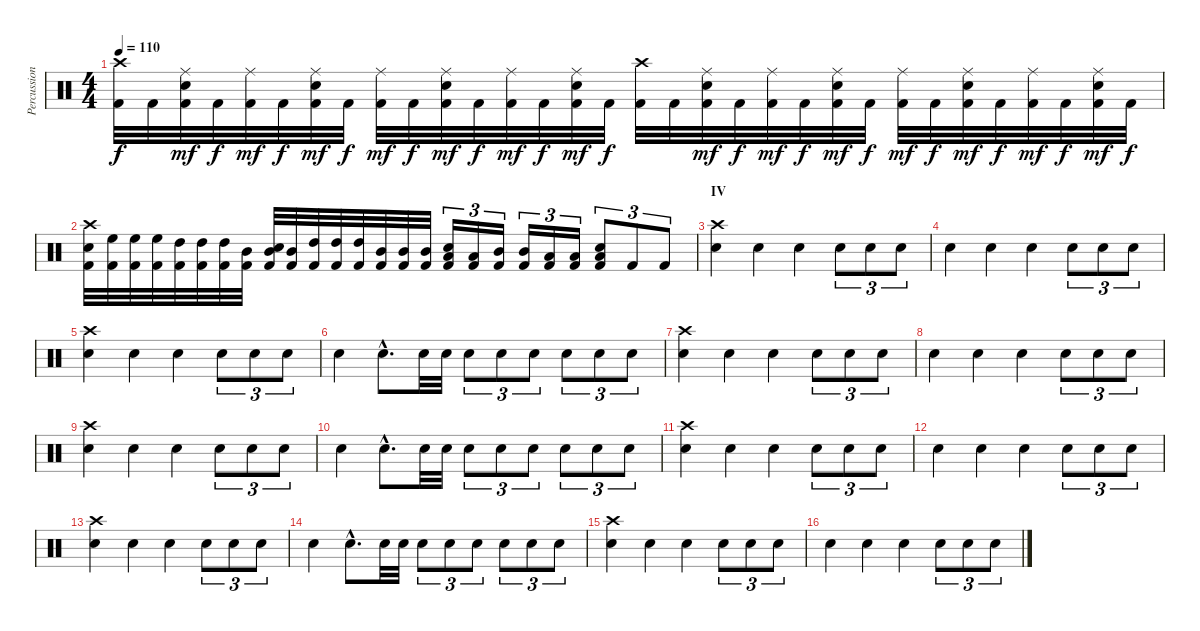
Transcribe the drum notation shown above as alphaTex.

\track ("Percussion" "Percussion") {instrument percussion}
\staff {score}
\articulation defaults
\ts (4 4)
\tempo 110
\clef neutral
\ks c
("Crash high (hit)" "Kick (hit) 2").32{dy f} "Kick (hit) 2".32 ("Ride (middle)" "Snare (hit) 2" "Kick (hit) 2").32{dy mf} "Kick (hit) 2".32{dy f} ("Ride (middle)" "Kick (hit) 2").32{dy mf} "Kick (hit) 2".32{dy f} ("Ride (middle)" "Snare (hit) 2" "Kick (hit) 2").32{dy mf} "Kick (hit) 2".32{dy f} ("Ride (middle)" "Kick (hit) 2").32{dy mf} "Kick (hit) 2".32{dy f} ("Ride (middle)" "Snare (hit) 2" "Kick (hit) 2").32{dy mf} "Kick (hit) 2".32{dy f} ("Ride (middle)" "Kick (hit) 2").32{dy mf} "Kick (hit) 2".32{dy f} ("Ride (middle)" "Snare (hit) 2" "Kick (hit) 2").32{dy mf} "Kick (hit) 2".32{dy f} ("Crash high (hit)" "Kick (hit) 2").32 "Kick (hit) 2".32 ("Ride (middle)" "Snare (hit) 2" "Kick (hit) 2").32{dy mf} "Kick (hit) 2".32{dy f} ("Ride (middle)" "Kick (hit) 2").32{dy mf} "Kick (hit) 2".32{dy f} ("Ride (middle)" "Snare (hit) 2" "Kick (hit) 2").32{dy mf} "Kick (hit) 2".32{dy f} ("Ride (middle)" "Kick (hit) 2").32{dy mf} "Kick (hit) 2".32{dy f} ("Ride (middle)" "Snare (hit) 2" "Kick (hit) 2").32{dy mf} "Kick (hit) 2".32{dy f} ("Ride (middle)" "Kick (hit) 2").32{dy mf} "Kick (hit) 2".32{dy f} ("Ride (middle)" "Snare (hit) 2" "Kick (hit) 2").32{dy mf} "Kick (hit) 2".32{dy f} |
("Crash high (hit)" "Snare (hit) 2" "Kick (hit) 2").32 ("High Floor Tom (hit)" "Kick (hit) 2").32 ("High Floor Tom (hit)" "Kick (hit) 2").32 ("High Floor Tom (hit)" "Kick (hit) 2").32 ("High Tom (hit)" "Kick (hit) 2").32 ("High Tom (hit)" "Kick (hit) 2").32 ("High Tom (hit)" "Kick (hit) 2").32 ("Mid Tom (hit)" "Kick (hit) 2").32 ("Mid Tom (hit)" "Snare (hit) 2" "Kick (hit) 2").32 ("Mid Tom (hit)" "Kick (hit) 2").32 ("High Tom (hit)" "Kick (hit) 2").32 ("High Tom (hit)" "Kick (hit) 2").32 ("High Tom (hit)" "Kick (hit) 2").32 ("Mid Tom (hit)" "Kick (hit) 2").32 ("Mid Tom (hit)" "Kick (hit) 2").32 ("Mid Tom (hit)" "Kick (hit) 2").32 ("Low Tom (hit)" "Snare (hit) 2" "Kick (hit) 2").16{tu (3 2)} ("Low Tom (hit)" "Kick (hit) 2").16{tu (3 2)} ("Mid Tom (hit)" "Kick (hit) 2").16{tu (3 2)} ("Mid Tom (hit)" "Kick (hit) 2").16{tu (3 2)} ("Low Tom (hit)" "Kick (hit) 2").16{tu (3 2)} ("Low Tom (hit)" "Kick (hit) 2").16{tu (3 2)} ("Low Tom (hit)" "Snare (hit) 2" "Kick (hit) 2").8{tu (3 2)} "Kick (hit) 2".8{tu (3 2)} "Kick (hit) 2".8{tu (3 2)} |
\section ("" "IV")
("Crash high (hit)" "Snare (hit) 2").4 "Snare (hit) 2".4 "Snare (hit) 2".4 "Snare (hit) 2".8{tu (3 2)} "Snare (hit) 2".8{tu (3 2)} "Snare (hit) 2".8{tu (3 2)} |
"Snare (hit) 2".4 "Snare (hit) 2".4 "Snare (hit) 2".4 "Snare (hit) 2".8{tu (3 2)} "Snare (hit) 2".8{tu (3 2)} "Snare (hit) 2".8{tu (3 2)} |
("Crash high (hit)" "Snare (hit) 2").4 "Snare (hit) 2".4 "Snare (hit) 2".4 "Snare (hit) 2".8{tu (3 2)} "Snare (hit) 2".8{tu (3 2)} "Snare (hit) 2".8{tu (3 2)} |
"Snare (hit) 2".4 "Snare (hit) 2"{hac}.8{d} "Snare (hit) 2".32 "Snare (hit) 2".32 "Snare (hit) 2".8{tu (3 2)} "Snare (hit) 2".8{tu (3 2)} "Snare (hit) 2".8{tu (3 2)} "Snare (hit) 2".8{tu (3 2)} "Snare (hit) 2".8{tu (3 2)} "Snare (hit) 2".8{tu (3 2)} |
("Crash high (hit)" "Snare (hit) 2").4 "Snare (hit) 2".4 "Snare (hit) 2".4 "Snare (hit) 2".8{tu (3 2)} "Snare (hit) 2".8{tu (3 2)} "Snare (hit) 2".8{tu (3 2)} |
"Snare (hit) 2".4 "Snare (hit) 2".4 "Snare (hit) 2".4 "Snare (hit) 2".8{tu (3 2)} "Snare (hit) 2".8{tu (3 2)} "Snare (hit) 2".8{tu (3 2)} |
("Crash high (hit)" "Snare (hit) 2").4 "Snare (hit) 2".4 "Snare (hit) 2".4 "Snare (hit) 2".8{tu (3 2)} "Snare (hit) 2".8{tu (3 2)} "Snare (hit) 2".8{tu (3 2)} |
"Snare (hit) 2".4 "Snare (hit) 2"{hac}.8{d} "Snare (hit) 2".32 "Snare (hit) 2".32 "Snare (hit) 2".8{tu (3 2)} "Snare (hit) 2".8{tu (3 2)} "Snare (hit) 2".8{tu (3 2)} "Snare (hit) 2".8{tu (3 2)} "Snare (hit) 2".8{tu (3 2)} "Snare (hit) 2".8{tu (3 2)} |
("Crash high (hit)" "Snare (hit) 2").4 "Snare (hit) 2".4 "Snare (hit) 2".4 "Snare (hit) 2".8{tu (3 2)} "Snare (hit) 2".8{tu (3 2)} "Snare (hit) 2".8{tu (3 2)} |
"Snare (hit) 2".4 "Snare (hit) 2".4 "Snare (hit) 2".4 "Snare (hit) 2".8{tu (3 2)} "Snare (hit) 2".8{tu (3 2)} "Snare (hit) 2".8{tu (3 2)} |
("Crash high (hit)" "Snare (hit) 2").4 "Snare (hit) 2".4 "Snare (hit) 2".4 "Snare (hit) 2".8{tu (3 2)} "Snare (hit) 2".8{tu (3 2)} "Snare (hit) 2".8{tu (3 2)} |
"Snare (hit) 2".4 "Snare (hit) 2"{hac}.8{d} "Snare (hit) 2".32 "Snare (hit) 2".32 "Snare (hit) 2".8{tu (3 2)} "Snare (hit) 2".8{tu (3 2)} "Snare (hit) 2".8{tu (3 2)} "Snare (hit) 2".8{tu (3 2)} "Snare (hit) 2".8{tu (3 2)} "Snare (hit) 2".8{tu (3 2)} |
("Crash high (hit)" "Snare (hit) 2").4 "Snare (hit) 2".4 "Snare (hit) 2".4 "Snare (hit) 2".8{tu (3 2)} "Snare (hit) 2".8{tu (3 2)} "Snare (hit) 2".8{tu (3 2)} |
"Snare (hit) 2".4 "Snare (hit) 2".4 "Snare (hit) 2".4 "Snare (hit) 2".8{tu (3 2)} "Snare (hit) 2".8{tu (3 2)} "Snare (hit) 2".8{tu (3 2)}
